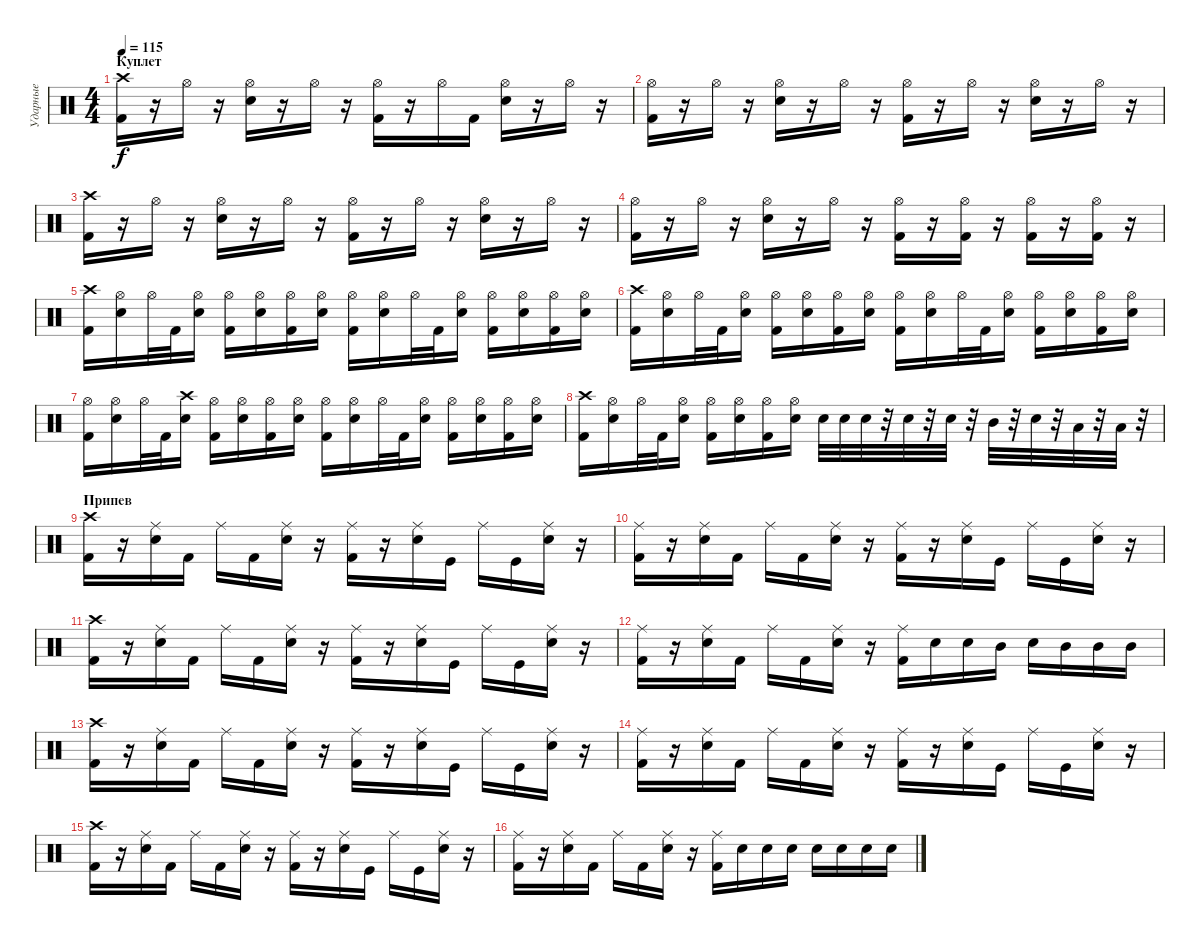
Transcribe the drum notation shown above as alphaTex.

\track ("Ударные" "Ударные") {instrument percussion}
\staff {score}
\articulation defaults
\ts (4 4)
\section ("" "Куплет")
\tempo 115
\clef neutral
\ks c
("Crash high (hit)" "Kick (hit) 2").16{dy f} r.16 "Hi-Hat (open)".16 r.16 ("Hi-Hat (open)" "Snare (hit) 2").16 r.16 "Hi-Hat (open)".16 r.16 ("Hi-Hat (open)" "Kick (hit) 2").16 r.16 "Hi-Hat (open)".16 "Kick (hit) 2".16 ("Hi-Hat (open)" "Snare (hit) 2").16 r.16 "Hi-Hat (open)".16 r.16 |
("Hi-Hat (open)" "Kick (hit) 2").16 r.16 "Hi-Hat (open)".16 r.16 ("Hi-Hat (open)" "Snare (hit) 2").16 r.16 "Hi-Hat (open)".16 r.16 ("Hi-Hat (open)" "Kick (hit) 2").16 r.16 "Hi-Hat (open)".16 r.16 ("Hi-Hat (open)" "Snare (hit) 2").16 r.16 "Hi-Hat (open)".16 r.16 |
("Crash high (hit)" "Kick (hit) 2").16 r.16 "Hi-Hat (open)".16 r.16 ("Hi-Hat (open)" "Snare (hit) 2").16 r.16 "Hi-Hat (open)".16 r.16 ("Hi-Hat (open)" "Kick (hit) 2").16 r.16 "Hi-Hat (open)".16 r.16 ("Hi-Hat (open)" "Snare (hit) 2").16 r.16 "Hi-Hat (open)".16 r.16 |
("Hi-Hat (open)" "Kick (hit) 2").16 r.16 "Hi-Hat (open)".16 r.16 ("Hi-Hat (open)" "Snare (hit) 2").16 r.16 "Hi-Hat (open)".16 r.16 ("Hi-Hat (open)" "Kick (hit) 2").16 r.16 ("Hi-Hat (open)" "Kick (hit) 2").16 r.16 ("Hi-Hat (open)" "Kick (hit) 2").16 r.16 ("Hi-Hat (open)" "Kick (hit) 2").16 r.16 |
("Crash high (hit)" "Kick (hit) 2").16 ("Hi-Hat (open)" "Snare (hit) 2").16 "Hi-Hat (open)".32 "Kick (hit) 2".32 ("Hi-Hat (open)" "Snare (hit) 2").16 ("Hi-Hat (open)" "Kick (hit) 2").16 ("Hi-Hat (open)" "Snare (hit) 2").16 ("Hi-Hat (open)" "Kick (hit) 2").16 ("Hi-Hat (open)" "Snare (hit) 2").16 ("Hi-Hat (open)" "Kick (hit) 2").16 ("Hi-Hat (open)" "Snare (hit) 2").16 "Hi-Hat (open)".32 "Kick (hit) 2".32 ("Hi-Hat (open)" "Snare (hit) 2").16 ("Hi-Hat (open)" "Kick (hit) 2").16 ("Hi-Hat (open)" "Snare (hit) 2").16 ("Hi-Hat (open)" "Kick (hit) 2").16 ("Hi-Hat (open)" "Snare (hit) 2").16 |
("Crash high (hit)" "Kick (hit) 2").16 ("Hi-Hat (open)" "Snare (hit) 2").16 "Hi-Hat (open)".32 "Kick (hit) 2".32 ("Hi-Hat (open)" "Snare (hit) 2").16 ("Hi-Hat (open)" "Kick (hit) 2").16 ("Hi-Hat (open)" "Snare (hit) 2").16 ("Hi-Hat (open)" "Kick (hit) 2").16 ("Hi-Hat (open)" "Snare (hit) 2").16 ("Hi-Hat (open)" "Kick (hit) 2").16 ("Hi-Hat (open)" "Snare (hit) 2").16 "Hi-Hat (open)".32 "Kick (hit) 2".32 ("Hi-Hat (open)" "Snare (hit) 2").16 ("Hi-Hat (open)" "Kick (hit) 2").16 ("Hi-Hat (open)" "Snare (hit) 2").16 ("Hi-Hat (open)" "Kick (hit) 2").16 ("Hi-Hat (open)" "Snare (hit) 2").16 |
("Hi-Hat (open)" "Kick (hit) 2").16 ("Hi-Hat (open)" "Snare (hit) 2").16 "Hi-Hat (open)".32 "Kick (hit) 2".32 ("Crash high (hit)" "Snare (hit) 2").16 ("Hi-Hat (open)" "Kick (hit) 2").16 ("Hi-Hat (open)" "Snare (hit) 2").16 ("Hi-Hat (open)" "Kick (hit) 2").16 ("Hi-Hat (open)" "Snare (hit) 2").16 ("Hi-Hat (open)" "Kick (hit) 2").16 ("Hi-Hat (open)" "Snare (hit) 2").16 "Hi-Hat (open)".32 "Kick (hit) 2".32 ("Hi-Hat (open)" "Snare (hit) 2").16 ("Hi-Hat (open)" "Kick (hit) 2").16 ("Hi-Hat (open)" "Snare (hit) 2").16 ("Hi-Hat (open)" "Kick (hit) 2").16 ("Hi-Hat (open)" "Snare (hit) 2").16 |
("Crash high (hit)" "Kick (hit) 2").16 ("Hi-Hat (open)" "Snare (hit) 2").16 "Hi-Hat (open)".32 "Kick (hit) 2".32 ("Hi-Hat (open)" "Snare (hit) 2").16 ("Hi-Hat (open)" "Kick (hit) 2").16 ("Hi-Hat (open)" "Snare (hit) 2").16 ("Hi-Hat (open)" "Kick (hit) 2").16 ("Hi-Hat (open)" "Snare (hit) 2").16 "Snare (hit) 2".32 "Snare (hit) 2".32 "Snare (hit) 2".32 r.32 "Snare (hit) 2".32 r.32 "Snare (hit) 2".32 r.32 "Mid Tom (hit)".32 r.32 "Snare (hit) 2".32 r.32 "Low Tom (hit)".32 r.32 "Low Tom (hit)".32 r.32 |
\section ("" "Припев")
("Crash high (hit)" "Kick (hit) 2").16 r.16 ("Snare (hit) 2" "Ride (middle)").16 "Kick (hit) 2".16 "Ride (middle)".16 "Kick (hit) 2".16 ("Snare (hit) 2" "Ride (middle)").16 r.16 ("Kick (hit) 2" "Ride (middle)").16 r.16 ("Snare (hit) 2" "Ride (middle)").16 "Kick (hit)".16 "Ride (middle)".16 "Kick (hit)".16 ("Snare (hit) 2" "Ride (middle)").16 r.16 |
("Ride (middle)" "Kick (hit) 2").16 r.16 ("Snare (hit) 2" "Ride (middle)").16 "Kick (hit) 2".16 "Ride (middle)".16 "Kick (hit) 2".16 ("Snare (hit) 2" "Ride (middle)").16 r.16 ("Kick (hit) 2" "Ride (middle)").16 r.16 ("Snare (hit) 2" "Ride (middle)").16 "Kick (hit)".16 "Ride (middle)".16 "Kick (hit)".16 ("Snare (hit) 2" "Ride (middle)").16 r.16 |
("Crash high (hit)" "Kick (hit) 2").16 r.16 ("Snare (hit) 2" "Ride (middle)").16 "Kick (hit) 2".16 "Ride (middle)".16 "Kick (hit) 2".16 ("Snare (hit) 2" "Ride (middle)").16 r.16 ("Kick (hit) 2" "Ride (middle)").16 r.16 ("Snare (hit) 2" "Ride (middle)").16 "Kick (hit)".16 "Ride (middle)".16 "Kick (hit)".16 ("Snare (hit) 2" "Ride (middle)").16 r.16 |
("Ride (middle)" "Kick (hit) 2").16 r.16 ("Snare (hit) 2" "Ride (middle)").16 "Kick (hit) 2".16 "Ride (middle)".16 "Kick (hit) 2".16 ("Snare (hit) 2" "Ride (middle)").16 r.16 ("Kick (hit) 2" "Ride (middle)").16 "Snare (hit) 2".16 "Snare (hit) 2".16 "Mid Tom (hit)".16 "Snare (hit) 2".16 "Mid Tom (hit)".16 "Mid Tom (hit)".16 "Mid Tom (hit)".16 |
("Crash high (hit)" "Kick (hit) 2").16 r.16 ("Snare (hit) 2" "Ride (middle)").16 "Kick (hit) 2".16 "Ride (middle)".16 "Kick (hit) 2".16 ("Snare (hit) 2" "Ride (middle)").16 r.16 ("Kick (hit) 2" "Ride (middle)").16 r.16 ("Snare (hit) 2" "Ride (middle)").16 "Kick (hit)".16 "Ride (middle)".16 "Kick (hit)".16 ("Snare (hit) 2" "Ride (middle)").16 r.16 |
("Ride (middle)" "Kick (hit) 2").16 r.16 ("Snare (hit) 2" "Ride (middle)").16 "Kick (hit) 2".16 "Ride (middle)".16 "Kick (hit) 2".16 ("Snare (hit) 2" "Ride (middle)").16 r.16 ("Kick (hit) 2" "Ride (middle)").16 r.16 ("Snare (hit) 2" "Ride (middle)").16 "Kick (hit)".16 "Ride (middle)".16 "Kick (hit)".16 ("Snare (hit) 2" "Ride (middle)").16 r.16 |
("Crash high (hit)" "Kick (hit) 2").16 r.16 ("Snare (hit) 2" "Ride (middle)").16 "Kick (hit) 2".16 "Ride (middle)".16 "Kick (hit) 2".16 ("Snare (hit) 2" "Ride (middle)").16 r.16 ("Kick (hit) 2" "Ride (middle)").16 r.16 ("Snare (hit) 2" "Ride (middle)").16 "Kick (hit)".16 "Ride (middle)".16 "Kick (hit)".16 ("Snare (hit) 2" "Ride (middle)").16 r.16 |
("Ride (middle)" "Kick (hit) 2").16 r.16 ("Snare (hit) 2" "Ride (middle)").16 "Kick (hit) 2".16 "Ride (middle)".16 "Kick (hit) 2".16 ("Snare (hit) 2" "Ride (middle)").16 r.16 ("Kick (hit) 2" "Ride (middle)").16 "Snare (hit) 2".16 "Snare (hit) 2".16 "Snare (hit) 2".16 "Snare (hit) 2".16 "Snare (hit) 2".16 "Snare (hit) 2".16 "Snare (hit) 2".16
